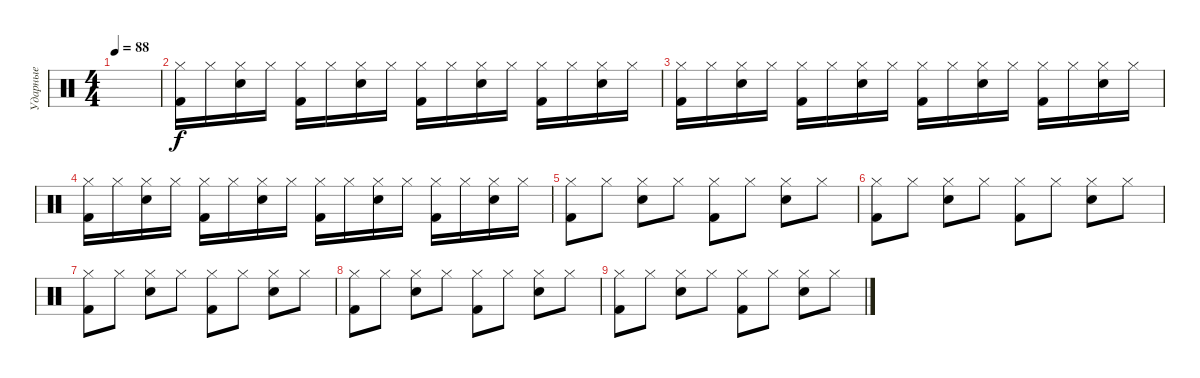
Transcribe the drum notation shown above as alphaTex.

\track ("Ударные" "Ударные") {instrument percussion}
\staff {score}
\articulation defaults
\ts (4 4)
\tempo 88
\clef neutral
\ks c
|
("Hi-Hat (closed)" "Kick (hit) 2").16 "Hi-Hat (closed)".16 ("Hi-Hat (closed)" "Snare (hit) 2").16 "Hi-Hat (closed)".16 ("Hi-Hat (closed)" "Kick (hit) 2").16 "Hi-Hat (closed)".16 ("Hi-Hat (closed)" "Snare (hit) 2").16 "Hi-Hat (closed)".16 ("Hi-Hat (closed)" "Kick (hit) 2").16 "Hi-Hat (closed)".16 ("Hi-Hat (closed)" "Snare (hit) 2").16 "Hi-Hat (closed)".16 ("Hi-Hat (closed)" "Kick (hit) 2").16 "Hi-Hat (closed)".16 ("Hi-Hat (closed)" "Snare (hit) 2").16 "Hi-Hat (closed)".16 |
("Hi-Hat (closed)" "Kick (hit) 2").16 "Hi-Hat (closed)".16 ("Hi-Hat (closed)" "Snare (hit) 2").16 "Hi-Hat (closed)".16 ("Hi-Hat (closed)" "Kick (hit) 2").16 "Hi-Hat (closed)".16 ("Hi-Hat (closed)" "Snare (hit) 2").16 "Hi-Hat (closed)".16 ("Hi-Hat (closed)" "Kick (hit) 2").16 "Hi-Hat (closed)".16 ("Hi-Hat (closed)" "Snare (hit) 2").16 "Hi-Hat (closed)".16 ("Hi-Hat (closed)" "Kick (hit) 2").16 "Hi-Hat (closed)".16 ("Hi-Hat (closed)" "Snare (hit) 2").16 "Hi-Hat (closed)".16 |
("Hi-Hat (closed)" "Kick (hit) 2").16 "Hi-Hat (closed)".16 ("Hi-Hat (closed)" "Snare (hit) 2").16 "Hi-Hat (closed)".16 ("Hi-Hat (closed)" "Kick (hit) 2").16 "Hi-Hat (closed)".16 ("Hi-Hat (closed)" "Snare (hit) 2").16 "Hi-Hat (closed)".16 ("Hi-Hat (closed)" "Kick (hit) 2").16 "Hi-Hat (closed)".16 ("Hi-Hat (closed)" "Snare (hit) 2").16 "Hi-Hat (closed)".16 ("Hi-Hat (closed)" "Kick (hit) 2").16 "Hi-Hat (closed)".16 ("Hi-Hat (closed)" "Snare (hit) 2").16 "Hi-Hat (closed)".16 |
("Hi-Hat (closed)" "Kick (hit) 2").8 "Hi-Hat (closed)".8 ("Hi-Hat (closed)" "Snare (hit) 2").8 "Hi-Hat (closed)".8 ("Hi-Hat (closed)" "Kick (hit) 2").8 "Hi-Hat (closed)".8 ("Hi-Hat (closed)" "Snare (hit) 2").8 "Hi-Hat (closed)".8 |
("Hi-Hat (closed)" "Kick (hit) 2").8 "Hi-Hat (closed)".8 ("Hi-Hat (closed)" "Snare (hit) 2").8 "Hi-Hat (closed)".8 ("Hi-Hat (closed)" "Kick (hit) 2").8 "Hi-Hat (closed)".8 ("Hi-Hat (closed)" "Snare (hit) 2").8 "Hi-Hat (closed)".8 |
("Hi-Hat (closed)" "Kick (hit) 2").8 "Hi-Hat (closed)".8 ("Hi-Hat (closed)" "Snare (hit) 2").8 "Hi-Hat (closed)".8 ("Hi-Hat (closed)" "Kick (hit) 2").8 "Hi-Hat (closed)".8 ("Hi-Hat (closed)" "Snare (hit) 2").8 "Hi-Hat (closed)".8 |
("Hi-Hat (closed)" "Kick (hit) 2").8 "Hi-Hat (closed)".8 ("Hi-Hat (closed)" "Snare (hit) 2").8 "Hi-Hat (closed)".8 ("Hi-Hat (closed)" "Kick (hit) 2").8 "Hi-Hat (closed)".8 ("Hi-Hat (closed)" "Snare (hit) 2").8 "Hi-Hat (closed)".8 |
("Hi-Hat (closed)" "Kick (hit) 2").8 "Hi-Hat (closed)".8 ("Hi-Hat (closed)" "Snare (hit) 2").8 "Hi-Hat (closed)".8 ("Hi-Hat (closed)" "Kick (hit) 2").8 "Hi-Hat (closed)".8 ("Hi-Hat (closed)" "Snare (hit) 2").8 "Hi-Hat (closed)".8
